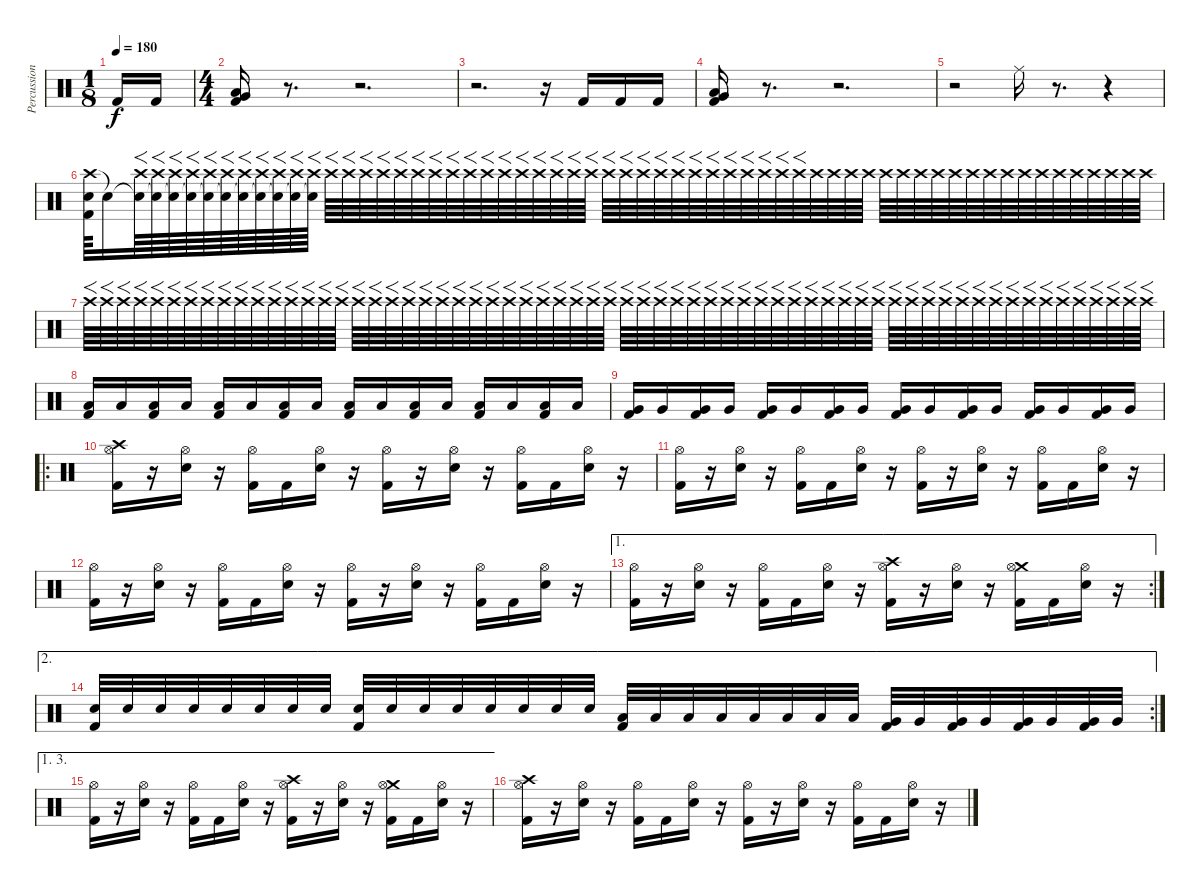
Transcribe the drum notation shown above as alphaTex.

\track ("Percussion" "Percussion") {instrument percussion}
\staff {score}
\articulation defaults
\ts (1 8)
\tempo 180
\clef neutral
\ks c "Kick (hit) 2".16{dy f} "Kick (hit) 2".16
|
\ts (4 4)
("Low Tom (hit)" "Very Low Tom (hit)" "Kick (hit) 2").16 r.8{d} r.2{d} |
r.2{d} r.16 "Kick (hit) 2".16 "Kick (hit) 2".16 "Kick (hit) 2".16 |
("Very Low Tom (hit)" "Low Tom (hit)" "Kick (hit) 2").16 r.8{d} r.2{d} |
r.2 "Ride (middle)".16 r.8{d} r.4 |
("Crash high (hit)" "Electric Snare (hit)" "Kick (hit) 2").64 "Snare (hit)"{t}.16 ("Snare (hit)"{t} "Crash high (hit)").64{f} ("Snare (hit)"{t} "Crash high (hit)").64{f} ("Snare (hit)"{t} "Crash high (hit)").64{f} ("Snare (hit)"{t} "Crash high (hit)").64{f} ("Snare (hit)"{t} "Crash high (hit)").64{f} ("Snare (hit)"{t} "Crash high (hit)").64{f} ("Snare (hit)"{t} "Crash high (hit)").64{f} ("Snare (hit)"{t} "Crash high (hit)").64{f volume 5} ("Snare (hit)"{t} "Crash high (hit)").64{f} ("Snare (hit)"{t} "Crash high (hit)").64{f} ("Snare (hit)"{t} "Crash high (hit)").64{f} "Crash high (hit)".64{f} "Crash high (hit)".64{f} "Crash high (hit)".64{f} "Crash high (hit)".64{f} "Crash high (hit)".64{f volume 6} "Crash high (hit)".64{f} "Crash high (hit)".64{f} "Crash high (hit)".64{f} "Crash high (hit)".64{f} "Crash high (hit)".64{f} "Crash high (hit)".64{f} "Crash high (hit)".64{f} "Crash high (hit)".64{f volume 7} "Crash high (hit)".64{f} "Crash high (hit)".64{f} "Crash high (hit)".64{f} "Crash high (hit)".64{f} "Crash high (hit)".64{f} "Crash high (hit)".64{f} "Crash high (hit)".64{f} "Crash high (hit)".64{f volume 8} "Crash high (hit)".64{f} "Crash high (hit)".64{f} "Crash high (hit)".64{f} "Crash high (hit)".64{f} "Crash high (hit)".64{f} "Crash high (hit)".64{f} "Crash high (hit)".64{f} "Crash high (hit)".64 "Crash high (hit)".64 "Crash high (hit)".64 "Crash high (hit)".64 "Crash high (hit)".64 "Crash high (hit)".64 "Crash high (hit)".64 "Crash high (hit)".64 "Crash high (hit)".64 "Crash high (hit)".64 "Crash high (hit)".64 "Crash high (hit)".64 "Crash high (hit)".64 "Crash high (hit)".64 "Crash high (hit)".64 "Crash high (hit)".64 "Crash high (hit)".64 "Crash high (hit)".64 "Crash high (hit)".64 "Crash high (hit)".64 |
"Crash high (hit)".64{f volume 8} "Crash high (hit)".64{f} "Crash high (hit)".64{f} "Crash high (hit)".64{f} "Crash high (hit)".64{f} "Crash high (hit)".64{f} "Crash high (hit)".64{f} "Crash high (hit)".64{f} "Crash high (hit)".64{f volume 9} "Crash high (hit)".64{f} "Crash high (hit)".64{f} "Crash high (hit)".64{f} "Crash high (hit)".64{f} "Crash high (hit)".64{f} "Crash high (hit)".64{f} "Crash high (hit)".64{f} "Crash high (hit)".64{f volume 10} "Crash high (hit)".64{f} "Crash high (hit)".64{f} "Crash high (hit)".64{f} "Crash high (hit)".64{f} "Crash high (hit)".64{f} "Crash high (hit)".64{f} "Crash high (hit)".64{f} "Crash high (hit)".64{f volume 11} "Crash high (hit)".64{f} "Crash high (hit)".64{f} "Crash high (hit)".64{f} "Crash high (hit)".64{f} "Crash high (hit)".64{f} "Crash high (hit)".64{f} "Crash high (hit)".64{f} "Crash high (hit)".64{f volume 12} "Crash high (hit)".64{f} "Crash high (hit)".64{f} "Crash high (hit)".64{f} "Crash high (hit)".64{f} "Crash high (hit)".64{f} "Crash high (hit)".64{f} "Crash high (hit)".64{f} "Crash high (hit)".64{f volume 13} "Crash high (hit)".64{f} "Crash high (hit)".64{f} "Crash high (hit)".64{f} "Crash high (hit)".64{f} "Crash high (hit)".64{f} "Crash high (hit)".64{f} "Crash high (hit)".64{f} "Crash high (hit)".64{f volume 14} "Crash high (hit)".64{f} "Crash high (hit)".64{f} "Crash high (hit)".64{f} "Crash high (hit)".64{f} "Crash high (hit)".64{f} "Crash high (hit)".64{f} "Crash high (hit)".64{f} "Crash high (hit)".64{f volume 15} "Crash high (hit)".64{f} "Crash high (hit)".64{f} "Crash high (hit)".64{f} "Crash high (hit)".64{f} "Crash high (hit)".64{f} "Crash high (hit)".64{f} "Crash high (hit)".64{f} |
("Low Tom (hit)" "Kick (hit) 2").16{volume 16} "Low Tom (hit)".16 ("Low Tom (hit)" "Kick (hit) 2").16 "Low Tom (hit)".16 ("Low Tom (hit)" "Kick (hit) 2").16 "Low Tom (hit)".16 ("Low Tom (hit)" "Kick (hit) 2").16 "Low Tom (hit)".16 ("Low Tom (hit)" "Kick (hit) 2").16 "Low Tom (hit)".16 ("Low Tom (hit)" "Kick (hit) 2").16 "Low Tom (hit)".16 ("Low Tom (hit)" "Kick (hit) 2").16 "Low Tom (hit)".16 ("Low Tom (hit)" "Kick (hit) 2").16 "Low Tom (hit)".16 |
("Very Low Tom (hit)" "Kick (hit) 2").16 "Very Low Tom (hit)".16 ("Very Low Tom (hit)" "Kick (hit) 2").16 "Very Low Tom (hit)".16 ("Very Low Tom (hit)" "Kick (hit) 2").16 "Very Low Tom (hit)".16 ("Very Low Tom (hit)" "Kick (hit) 2").16 "Very Low Tom (hit)".16 ("Very Low Tom (hit)" "Kick (hit) 2").16 "Very Low Tom (hit)".16 ("Very Low Tom (hit)" "Kick (hit) 2").16 "Very Low Tom (hit)".16 ("Very Low Tom (hit)" "Kick (hit) 2").16 "Very Low Tom (hit)".16 ("Very Low Tom (hit)" "Kick (hit) 2").16 "Very Low Tom (hit)".16 |
\ro
("Crash high (hit)" "Hi-Hat (open)" "Kick (hit) 2").16 r.16 ("Electric Snare (hit)" "Hi-Hat (open)").16 r.16 ("Hi-Hat (open)" "Kick (hit) 2").16 "Kick (hit) 2".16 ("Electric Snare (hit)" "Hi-Hat (open)").16 r.16 ("Hi-Hat (open)" "Kick (hit) 2").16 r.16 ("Electric Snare (hit)" "Hi-Hat (open)").16 r.16 ("Hi-Hat (open)" "Kick (hit) 2").16 "Kick (hit) 2".16 ("Electric Snare (hit)" "Hi-Hat (open)").16 r.16 |
("Hi-Hat (open)" "Kick (hit) 2").16 r.16 ("Electric Snare (hit)" "Hi-Hat (open)").16 r.16 ("Hi-Hat (open)" "Kick (hit) 2").16 "Kick (hit) 2".16 ("Electric Snare (hit)" "Hi-Hat (open)").16 r.16 ("Hi-Hat (open)" "Kick (hit) 2").16 r.16 ("Electric Snare (hit)" "Hi-Hat (open)").16 r.16 ("Hi-Hat (open)" "Kick (hit) 2").16 "Kick (hit) 2".16 ("Electric Snare (hit)" "Hi-Hat (open)").16 r.16 |
("Hi-Hat (open)" "Kick (hit) 2").16 r.16 ("Electric Snare (hit)" "Hi-Hat (open)").16 r.16 ("Hi-Hat (open)" "Kick (hit) 2").16 "Kick (hit) 2".16 ("Electric Snare (hit)" "Hi-Hat (open)").16 r.16 ("Hi-Hat (open)" "Kick (hit) 2").16 r.16 ("Electric Snare (hit)" "Hi-Hat (open)").16 r.16 ("Hi-Hat (open)" "Kick (hit) 2").16 "Kick (hit) 2".16 ("Electric Snare (hit)" "Hi-Hat (open)").16 r.16 |
\ae 1
\rc 2
("Hi-Hat (open)" "Kick (hit) 2").16 r.16 ("Electric Snare (hit)" "Hi-Hat (open)").16 r.16 ("Hi-Hat (open)" "Kick (hit) 2").16 "Kick (hit) 2".16 ("Electric Snare (hit)" "Hi-Hat (open)").16 r.16 ("Crash high (hit)" "Hi-Hat (open)" "Kick (hit) 2").16 r.16 ("Electric Snare (hit)" "Hi-Hat (open)").16 r.16 ("Crash medium (hit)" "Hi-Hat (open)" "Kick (hit) 2").16 "Kick (hit) 2".16 ("Electric Snare (hit)" "Hi-Hat (open)").16 r.16 |
\ae 2
\rc 2
("Electric Snare (hit)" "Kick (hit) 2").32 "Electric Snare (hit)".32 "Electric Snare (hit)".32 "Electric Snare (hit)".32 "Electric Snare (hit)".32 "Electric Snare (hit)".32 "Electric Snare (hit)".32 "Electric Snare (hit)".32 ("Electric Snare (hit)" "Kick (hit) 2").32 "Electric Snare (hit)".32 "Electric Snare (hit)".32 "Electric Snare (hit)".32 "Electric Snare (hit)".32 "Electric Snare (hit)".32 "Electric Snare (hit)".32 "Electric Snare (hit)".32 ("Low Tom (hit)" "Kick (hit) 2").32 "Low Tom (hit)".32 "Low Tom (hit)".32 "Low Tom (hit)".32 "Low Tom (hit)".32 "Low Tom (hit)".32 "Low Tom (hit)".32 "Low Tom (hit)".32 ("Very Low Tom (hit)" "Kick (hit) 2").32 "Very Low Tom (hit)".32 ("Very Low Tom (hit)" "Kick (hit) 2").32 "Very Low Tom (hit)".32 ("Very Low Tom (hit)" "Kick (hit) 2").32 "Very Low Tom (hit)".32 ("Very Low Tom (hit)" "Kick (hit) 2").32 "Very Low Tom (hit)".32 |
\ae (1 3)
("Hi-Hat (open)" "Kick (hit) 2").16 r.16 ("Electric Snare (hit)" "Hi-Hat (open)").16 r.16 ("Hi-Hat (open)" "Kick (hit) 2").16 "Kick (hit) 2".16 ("Electric Snare (hit)" "Hi-Hat (open)").16 r.16 ("Crash high (hit)" "Hi-Hat (open)" "Kick (hit) 2").16 r.16 ("Electric Snare (hit)" "Hi-Hat (open)").16 r.16 ("Crash medium (hit)" "Hi-Hat (open)" "Kick (hit) 2").16 "Kick (hit) 2".16 ("Electric Snare (hit)" "Hi-Hat (open)").16 r.16 |
("Crash high (hit)" "Hi-Hat (open)" "Kick (hit) 2").16 r.16 ("Electric Snare (hit)" "Hi-Hat (open)").16 r.16 ("Hi-Hat (open)" "Kick (hit) 2").16 "Kick (hit) 2".16 ("Electric Snare (hit)" "Hi-Hat (open)").16 r.16 ("Hi-Hat (open)" "Kick (hit) 2").16 r.16 ("Electric Snare (hit)" "Hi-Hat (open)").16 r.16 ("Hi-Hat (open)" "Kick (hit) 2").16 "Kick (hit) 2".16 ("Electric Snare (hit)" "Hi-Hat (open)").16 r.16
